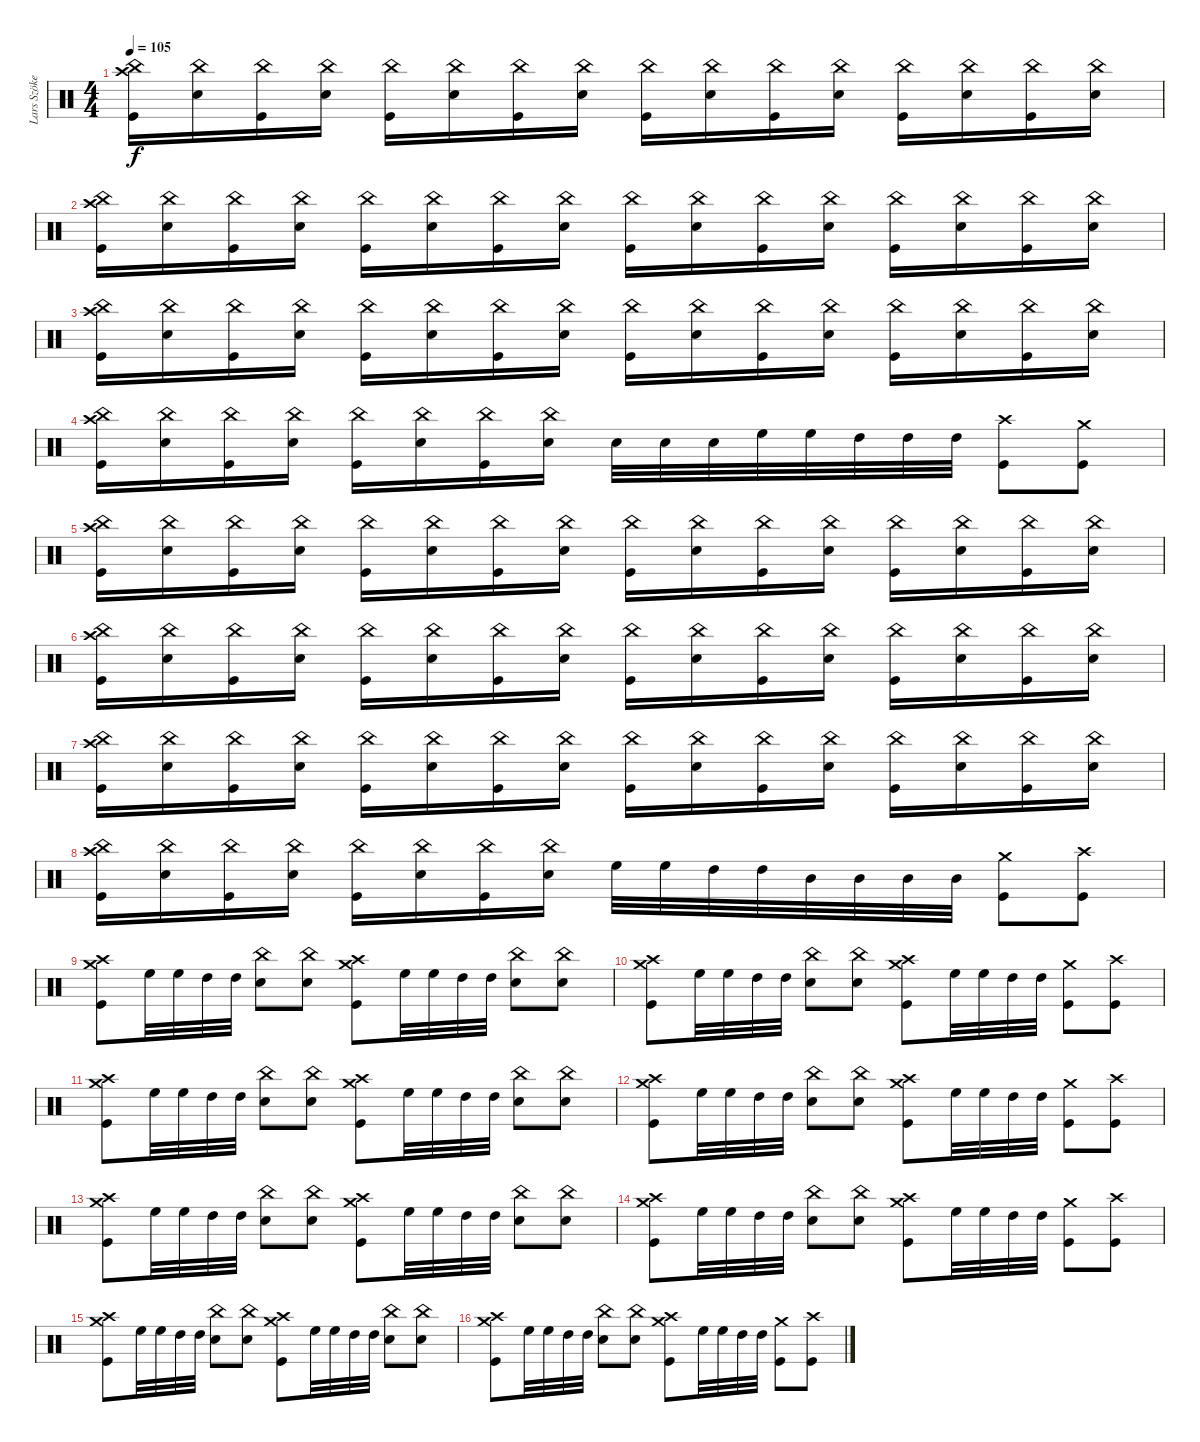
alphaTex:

\track ("Lars Szöke" "Lars Szöke") {instrument percussion}
\staff {score}
\articulation defaults
\ts (4 4)
\tempo 105
\clef neutral
\ks c
("China (hit)" "Crash high (hit)" "Kick (hit)").16{dy f} ("China (hit)" "Snare (hit) 2").16 ("China (hit)" "Kick (hit)").16 ("China (hit)" "Snare (hit) 2").16 ("China (hit)" "Kick (hit)").16 ("China (hit)" "Snare (hit) 2").16 ("China (hit)" "Kick (hit)").16 ("China (hit)" "Snare (hit) 2").16 ("China (hit)" "Kick (hit)").16 ("China (hit)" "Snare (hit) 2").16 ("China (hit)" "Kick (hit)").16 ("China (hit)" "Snare (hit) 2").16 ("China (hit)" "Kick (hit)").16 ("China (hit)" "Snare (hit) 2").16 ("China (hit)" "Kick (hit)").16 ("China (hit)" "Snare (hit) 2").16 |
("China (hit)" "Crash high (hit)" "Kick (hit)").16 ("China (hit)" "Snare (hit) 2").16 ("China (hit)" "Kick (hit)").16 ("China (hit)" "Snare (hit) 2").16 ("China (hit)" "Kick (hit)").16 ("China (hit)" "Snare (hit) 2").16 ("China (hit)" "Kick (hit)").16 ("China (hit)" "Snare (hit) 2").16 ("China (hit)" "Kick (hit)").16 ("China (hit)" "Snare (hit) 2").16 ("China (hit)" "Kick (hit)").16 ("China (hit)" "Snare (hit) 2").16 ("China (hit)" "Kick (hit)").16 ("China (hit)" "Snare (hit) 2").16 ("China (hit)" "Kick (hit)").16 ("China (hit)" "Snare (hit) 2").16 |
("China (hit)" "Crash high (hit)" "Kick (hit)").16 ("China (hit)" "Snare (hit) 2").16 ("China (hit)" "Kick (hit)").16 ("China (hit)" "Snare (hit) 2").16 ("China (hit)" "Kick (hit)").16 ("China (hit)" "Snare (hit) 2").16 ("China (hit)" "Kick (hit)").16 ("China (hit)" "Snare (hit) 2").16 ("China (hit)" "Kick (hit)").16 ("China (hit)" "Snare (hit) 2").16 ("China (hit)" "Kick (hit)").16 ("China (hit)" "Snare (hit) 2").16 ("China (hit)" "Kick (hit)").16 ("China (hit)" "Snare (hit) 2").16 ("China (hit)" "Kick (hit)").16 ("China (hit)" "Snare (hit) 2").16 |
("China (hit)" "Crash high (hit)" "Kick (hit)").16 ("China (hit)" "Snare (hit) 2").16 ("China (hit)" "Kick (hit)").16 ("China (hit)" "Snare (hit) 2").16 ("China (hit)" "Kick (hit)").16 ("China (hit)" "Snare (hit) 2").16 ("China (hit)" "Kick (hit)").16 ("China (hit)" "Snare (hit) 2").16 "Snare (hit) 2".32 "Snare (hit) 2".32 "Snare (hit) 2".32 "High Floor Tom (hit)".32 "High Floor Tom (hit)".32 "High Tom (hit)".32 "High Tom (hit)".32 "High Tom (hit)".32 ("Crash high (hit)" "Kick (hit)").8 ("Crash medium (hit)" "Kick (hit)").8 |
("China (hit)" "Crash high (hit)" "Kick (hit)").16 ("China (hit)" "Snare (hit) 2").16 ("China (hit)" "Kick (hit)").16 ("China (hit)" "Snare (hit) 2").16 ("China (hit)" "Kick (hit)").16 ("China (hit)" "Snare (hit) 2").16 ("China (hit)" "Kick (hit)").16 ("China (hit)" "Snare (hit) 2").16 ("China (hit)" "Kick (hit)").16 ("China (hit)" "Snare (hit) 2").16 ("China (hit)" "Kick (hit)").16 ("China (hit)" "Snare (hit) 2").16 ("China (hit)" "Kick (hit)").16 ("China (hit)" "Snare (hit) 2").16 ("China (hit)" "Kick (hit)").16 ("China (hit)" "Snare (hit) 2").16 |
("China (hit)" "Crash high (hit)" "Kick (hit)").16 ("China (hit)" "Snare (hit) 2").16 ("China (hit)" "Kick (hit)").16 ("China (hit)" "Snare (hit) 2").16 ("China (hit)" "Kick (hit)").16 ("China (hit)" "Snare (hit) 2").16 ("China (hit)" "Kick (hit)").16 ("China (hit)" "Snare (hit) 2").16 ("China (hit)" "Kick (hit)").16 ("China (hit)" "Snare (hit) 2").16 ("China (hit)" "Kick (hit)").16 ("China (hit)" "Snare (hit) 2").16 ("China (hit)" "Kick (hit)").16 ("China (hit)" "Snare (hit) 2").16 ("China (hit)" "Kick (hit)").16 ("China (hit)" "Snare (hit) 2").16 |
("China (hit)" "Crash high (hit)" "Kick (hit)").16 ("China (hit)" "Snare (hit) 2").16 ("China (hit)" "Kick (hit)").16 ("China (hit)" "Snare (hit) 2").16 ("China (hit)" "Kick (hit)").16 ("China (hit)" "Snare (hit) 2").16 ("China (hit)" "Kick (hit)").16 ("China (hit)" "Snare (hit) 2").16 ("China (hit)" "Kick (hit)").16 ("China (hit)" "Snare (hit) 2").16 ("China (hit)" "Kick (hit)").16 ("China (hit)" "Snare (hit) 2").16 ("China (hit)" "Kick (hit)").16 ("China (hit)" "Snare (hit) 2").16 ("China (hit)" "Kick (hit)").16 ("China (hit)" "Snare (hit) 2").16 |
("China (hit)" "Crash high (hit)" "Kick (hit)").16 ("China (hit)" "Snare (hit) 2").16 ("China (hit)" "Kick (hit)").16 ("China (hit)" "Snare (hit) 2").16 ("China (hit)" "Kick (hit)").16 ("China (hit)" "Snare (hit) 2").16 ("China (hit)" "Kick (hit)").16 ("China (hit)" "Snare (hit) 2").16 "High Floor Tom (hit)".32 "High Floor Tom (hit)".32 "High Tom (hit)".32 "High Tom (hit)".32 "Mid Tom (hit)".32 "Mid Tom (hit)".32 "Mid Tom (hit)".32 "Mid Tom (hit)".32 ("Crash medium (hit)" "Kick (hit)").8 ("Crash high (hit)" "Kick (hit)").8 |
("Crash medium (hit)" "Crash high (hit)" "Kick (hit)").8 "High Floor Tom (hit)".32 "High Floor Tom (hit)".32 "High Tom (hit)".32 "High Tom (hit)".32 ("China (hit)" "Snare (hit) 2").8 ("China (hit)" "Snare (hit) 2").8 ("Crash medium (hit)" "Crash high (hit)" "Kick (hit)").8 "High Floor Tom (hit)".32 "High Floor Tom (hit)".32 "High Tom (hit)".32 "High Tom (hit)".32 ("China (hit)" "Snare (hit) 2").8 ("China (hit)" "Snare (hit) 2").8 |
("Crash medium (hit)" "Crash high (hit)" "Kick (hit)").8 "High Floor Tom (hit)".32 "High Floor Tom (hit)".32 "High Tom (hit)".32 "High Tom (hit)".32 ("China (hit)" "Snare (hit) 2").8 ("China (hit)" "Snare (hit) 2").8 ("Crash medium (hit)" "Crash high (hit)" "Kick (hit)").8 "High Floor Tom (hit)".32 "High Floor Tom (hit)".32 "High Tom (hit)".32 "High Tom (hit)".32 ("Crash medium (hit)" "Kick (hit)").8 ("Crash high (hit)" "Kick (hit)").8 |
("Crash medium (hit)" "Crash high (hit)" "Kick (hit)").8 "High Floor Tom (hit)".32 "High Floor Tom (hit)".32 "High Tom (hit)".32 "High Tom (hit)".32 ("China (hit)" "Snare (hit) 2").8 ("China (hit)" "Snare (hit) 2").8 ("Crash medium (hit)" "Crash high (hit)" "Kick (hit)").8 "High Floor Tom (hit)".32 "High Floor Tom (hit)".32 "High Tom (hit)".32 "High Tom (hit)".32 ("China (hit)" "Snare (hit) 2").8 ("China (hit)" "Snare (hit) 2").8 |
("Crash medium (hit)" "Crash high (hit)" "Kick (hit)").8 "High Floor Tom (hit)".32 "High Floor Tom (hit)".32 "High Tom (hit)".32 "High Tom (hit)".32 ("China (hit)" "Snare (hit) 2").8 ("China (hit)" "Snare (hit) 2").8 ("Crash medium (hit)" "Crash high (hit)" "Kick (hit)").8 "High Floor Tom (hit)".32 "High Floor Tom (hit)".32 "High Tom (hit)".32 "High Tom (hit)".32 ("Crash medium (hit)" "Kick (hit)").8 ("Crash high (hit)" "Kick (hit)").8 |
("Crash medium (hit)" "Crash high (hit)" "Kick (hit)").8 "High Floor Tom (hit)".32 "High Floor Tom (hit)".32 "High Tom (hit)".32 "High Tom (hit)".32 ("China (hit)" "Snare (hit) 2").8 ("China (hit)" "Snare (hit) 2").8 ("Crash medium (hit)" "Crash high (hit)" "Kick (hit)").8 "High Floor Tom (hit)".32 "High Floor Tom (hit)".32 "High Tom (hit)".32 "High Tom (hit)".32 ("China (hit)" "Snare (hit) 2").8 ("China (hit)" "Snare (hit) 2").8 |
("Crash medium (hit)" "Crash high (hit)" "Kick (hit)").8 "High Floor Tom (hit)".32 "High Floor Tom (hit)".32 "High Tom (hit)".32 "High Tom (hit)".32 ("China (hit)" "Snare (hit) 2").8 ("China (hit)" "Snare (hit) 2").8 ("Crash medium (hit)" "Crash high (hit)" "Kick (hit)").8 "High Floor Tom (hit)".32 "High Floor Tom (hit)".32 "High Tom (hit)".32 "High Tom (hit)".32 ("Crash medium (hit)" "Kick (hit)").8 ("Crash high (hit)" "Kick (hit)").8 |
("Crash medium (hit)" "Crash high (hit)" "Kick (hit)").8 "High Floor Tom (hit)".32 "High Floor Tom (hit)".32 "High Tom (hit)".32 "High Tom (hit)".32 ("China (hit)" "Snare (hit) 2").8 ("China (hit)" "Snare (hit) 2").8 ("Crash medium (hit)" "Crash high (hit)" "Kick (hit)").8 "High Floor Tom (hit)".32 "High Floor Tom (hit)".32 "High Tom (hit)".32 "High Tom (hit)".32 ("China (hit)" "Snare (hit) 2").8 ("China (hit)" "Snare (hit) 2").8 |
("Crash medium (hit)" "Crash high (hit)" "Kick (hit)").8 "High Floor Tom (hit)".32 "High Floor Tom (hit)".32 "High Tom (hit)".32 "High Tom (hit)".32 ("China (hit)" "Snare (hit) 2").8 ("China (hit)" "Snare (hit) 2").8 ("Crash medium (hit)" "Crash high (hit)" "Kick (hit)").8 "High Floor Tom (hit)".32 "High Floor Tom (hit)".32 "High Tom (hit)".32 "High Tom (hit)".32 ("Crash medium (hit)" "Kick (hit)").8 ("Crash high (hit)" "Kick (hit)").8
